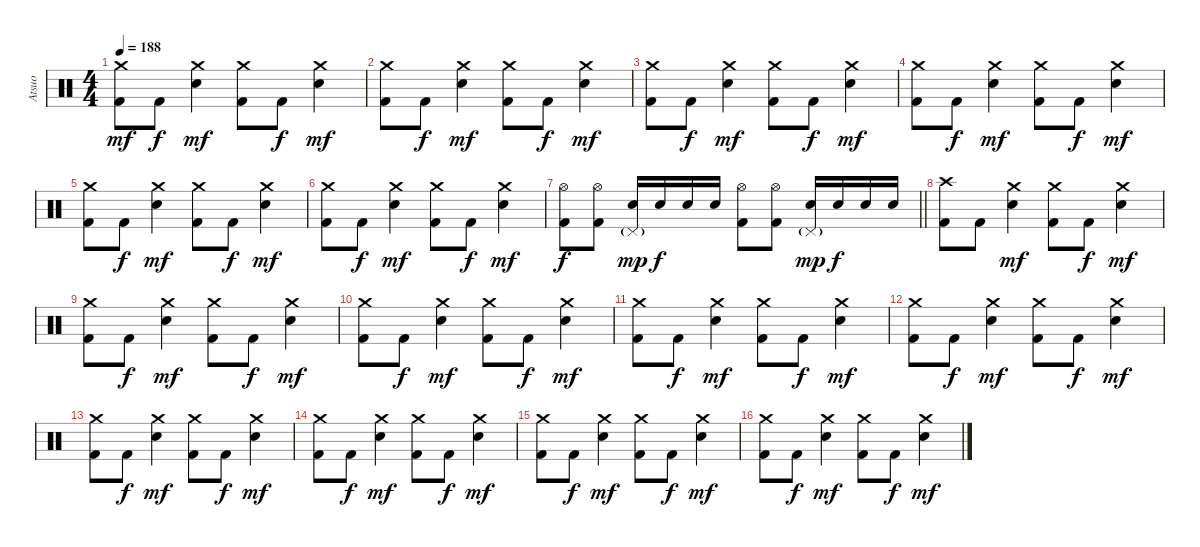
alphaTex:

\track ("Atsuo" "Atsuo") {instrument percussion}
\staff {score}
\articulation defaults
\ts (4 4)
\tempo 188
\clef neutral
\ks c
("Crash medium (hit)" "Kick (hit) 2").8{dy mf} "Kick (hit) 2".8{dy f} ("Crash medium (hit)" "Electric Snare (hit)").4{dy mf} ("Crash medium (hit)" "Kick (hit) 2").8 "Kick (hit) 2".8{dy f} ("Crash medium (hit)" "Electric Snare (hit)").4{dy mf} |
("Crash medium (hit)" "Kick (hit) 2").8 "Kick (hit) 2".8{dy f} ("Crash medium (hit)" "Electric Snare (hit)").4{dy mf} ("Crash medium (hit)" "Kick (hit) 2").8 "Kick (hit) 2".8{dy f} ("Crash medium (hit)" "Electric Snare (hit)").4{dy mf} |
("Crash medium (hit)" "Kick (hit) 2").8 "Kick (hit) 2".8{dy f} ("Crash medium (hit)" "Electric Snare (hit)").4{dy mf} ("Crash medium (hit)" "Kick (hit) 2").8 "Kick (hit) 2".8{dy f} ("Crash medium (hit)" "Electric Snare (hit)").4{dy mf} |
("Crash medium (hit)" "Kick (hit) 2").8 "Kick (hit) 2".8{dy f} ("Crash medium (hit)" "Electric Snare (hit)").4{dy mf} ("Crash medium (hit)" "Kick (hit) 2").8 "Kick (hit) 2".8{dy f} ("Crash medium (hit)" "Electric Snare (hit)").4{dy mf} |
("Crash medium (hit)" "Kick (hit) 2").8 "Kick (hit) 2".8{dy f} ("Crash medium (hit)" "Electric Snare (hit)").4{dy mf} ("Crash medium (hit)" "Kick (hit) 2").8 "Kick (hit) 2".8{dy f} ("Crash medium (hit)" "Electric Snare (hit)").4{dy mf} |
("Crash medium (hit)" "Kick (hit) 2").8 "Kick (hit) 2".8{dy f} ("Crash medium (hit)" "Electric Snare (hit)").4{dy mf} ("Crash medium (hit)" "Kick (hit) 2").8 "Kick (hit) 2".8{dy f} ("Crash medium (hit)" "Electric Snare (hit)").4{dy mf} |
\barLineRight lightlight
("Hi-Hat (open)" "Kick (hit) 2").8{dy f} ("Hi-Hat (open)" "Kick (hit) 2").8 ("Pedal Hi-Hat (hit)"{g} "Electric Snare (hit)").16{dy mp} "Electric Snare (hit)".16{dy f} "Electric Snare (hit)".16 "Electric Snare (hit)".16 ("Hi-Hat (open)" "Kick (hit) 2").8 ("Hi-Hat (open)" "Kick (hit) 2").8 ("Pedal Hi-Hat (hit)"{g} "Electric Snare (hit)").16{dy mp} "Electric Snare (hit)".16{dy f} "Electric Snare (hit)".16 "Electric Snare (hit)".16 |
\section ("" "")
("Crash high (hit)" "Kick (hit) 2").8 "Kick (hit) 2".8 ("Crash medium (hit)" "Electric Snare (hit)").4{dy mf} ("Crash medium (hit)" "Kick (hit) 2").8 "Kick (hit) 2".8{dy f} ("Crash medium (hit)" "Electric Snare (hit)").4{dy mf} |
("Crash medium (hit)" "Kick (hit) 2").8 "Kick (hit) 2".8{dy f} ("Crash medium (hit)" "Electric Snare (hit)").4{dy mf} ("Crash medium (hit)" "Kick (hit) 2").8 "Kick (hit) 2".8{dy f} ("Crash medium (hit)" "Electric Snare (hit)").4{dy mf} |
("Crash medium (hit)" "Kick (hit) 2").8 "Kick (hit) 2".8{dy f} ("Crash medium (hit)" "Electric Snare (hit)").4{dy mf} ("Crash medium (hit)" "Kick (hit) 2").8 "Kick (hit) 2".8{dy f} ("Crash medium (hit)" "Electric Snare (hit)").4{dy mf} |
("Crash medium (hit)" "Kick (hit) 2").8 "Kick (hit) 2".8{dy f} ("Crash medium (hit)" "Electric Snare (hit)").4{dy mf} ("Crash medium (hit)" "Kick (hit) 2").8 "Kick (hit) 2".8{dy f} ("Crash medium (hit)" "Electric Snare (hit)").4{dy mf} |
("Crash medium (hit)" "Kick (hit) 2").8 "Kick (hit) 2".8{dy f} ("Crash medium (hit)" "Electric Snare (hit)").4{dy mf} ("Crash medium (hit)" "Kick (hit) 2").8 "Kick (hit) 2".8{dy f} ("Crash medium (hit)" "Electric Snare (hit)").4{dy mf} |
("Crash medium (hit)" "Kick (hit) 2").8 "Kick (hit) 2".8{dy f} ("Crash medium (hit)" "Electric Snare (hit)").4{dy mf} ("Crash medium (hit)" "Kick (hit) 2").8 "Kick (hit) 2".8{dy f} ("Crash medium (hit)" "Electric Snare (hit)").4{dy mf} |
("Crash medium (hit)" "Kick (hit) 2").8 "Kick (hit) 2".8{dy f} ("Crash medium (hit)" "Electric Snare (hit)").4{dy mf} ("Crash medium (hit)" "Kick (hit) 2").8 "Kick (hit) 2".8{dy f} ("Crash medium (hit)" "Electric Snare (hit)").4{dy mf} |
("Crash medium (hit)" "Kick (hit) 2").8 "Kick (hit) 2".8{dy f} ("Crash medium (hit)" "Electric Snare (hit)").4{dy mf} ("Crash medium (hit)" "Kick (hit) 2").8 "Kick (hit) 2".8{dy f} ("Crash medium (hit)" "Electric Snare (hit)").4{dy mf} |
("Crash medium (hit)" "Kick (hit) 2").8 "Kick (hit) 2".8{dy f} ("Crash medium (hit)" "Electric Snare (hit)").4{dy mf} ("Crash medium (hit)" "Kick (hit) 2").8 "Kick (hit) 2".8{dy f} ("Crash medium (hit)" "Electric Snare (hit)").4{dy mf}
